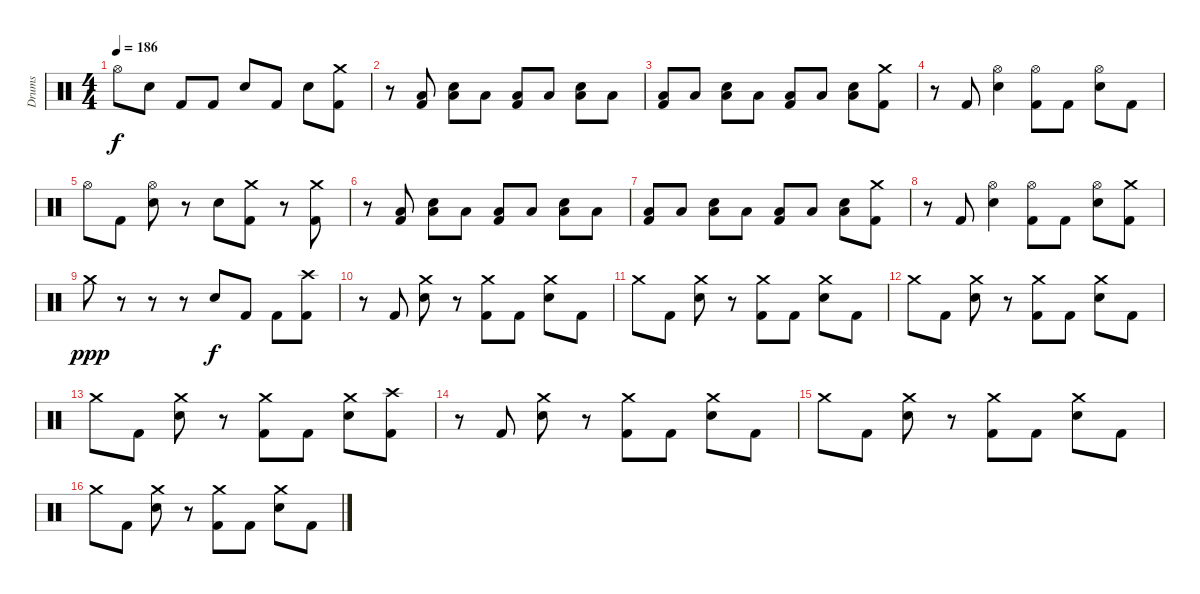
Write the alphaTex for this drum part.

\track ("Drums" "Drums") {instrument percussion}
\staff
\articulation defaults
\ts (4 4)
\tempo 186
\clef neutral
\ks c "Hi-Hat (open)".8{dy f} "Electric Snare (hit)".8 "Kick (hit) 2".8 "Kick (hit) 2".8 "Electric Snare (hit)".8 "Kick (hit) 2".8 "Electric Snare (hit)".8
("Crash medium (hit)" "Kick (hit) 2").8 |
r.8 ("Low Floor Tom (hit)" "Kick (hit) 2").8 ("Low Floor Tom (hit)" "Electric Snare (hit)").8 "Low Floor Tom (hit)".8 ("Low Floor Tom (hit)" "Kick (hit) 2").8 "Low Floor Tom (hit)".8 ("Low Floor Tom (hit)" "Electric Snare (hit)").8 "Low Floor Tom (hit)".8 |
("Low Floor Tom (hit)" "Kick (hit) 2").8 "Low Floor Tom (hit)".8 ("Low Floor Tom (hit)" "Electric Snare (hit)").8 "Low Floor Tom (hit)".8 ("Low Floor Tom (hit)" "Kick (hit) 2").8 "Low Floor Tom (hit)".8 ("Low Floor Tom (hit)" "Electric Snare (hit)").8 ("Crash medium (hit)" "Kick (hit) 2").8 |
r.8 "Kick (hit) 2".8 ("Hi-Hat (open)" "Electric Snare (hit)").4 ("Hi-Hat (open)" "Kick (hit) 2").8 "Kick (hit) 2".8 ("Hi-Hat (open)" "Electric Snare (hit)").8 "Kick (hit) 2".8 |
"Hi-Hat (open)".8 "Kick (hit) 2".8 ("Hi-Hat (open)" "Electric Snare (hit)").8 r.8 "Electric Snare (hit)".8 ("Crash medium (hit)" "Kick (hit) 2").8 r.8 ("Crash medium (hit)" "Kick (hit) 2").8 |
r.8 ("Low Floor Tom (hit)" "Kick (hit) 2").8 ("Low Floor Tom (hit)" "Electric Snare (hit)").8 "Low Floor Tom (hit)".8 ("Low Floor Tom (hit)" "Kick (hit) 2").8 "Low Floor Tom (hit)".8 ("Low Floor Tom (hit)" "Electric Snare (hit)").8 "Low Floor Tom (hit)".8 |
("Low Floor Tom (hit)" "Kick (hit) 2").8 "Low Floor Tom (hit)".8 ("Low Floor Tom (hit)" "Electric Snare (hit)").8 "Low Floor Tom (hit)".8 ("Low Floor Tom (hit)" "Kick (hit) 2").8 "Low Floor Tom (hit)".8 ("Low Floor Tom (hit)" "Electric Snare (hit)").8 ("Crash medium (hit)" "Kick (hit) 2").8 |
r.8 "Kick (hit) 2".8 ("Hi-Hat (open)" "Electric Snare (hit)").4 ("Hi-Hat (open)" "Kick (hit) 2").8 "Kick (hit) 2".8 ("Hi-Hat (open)" "Electric Snare (hit)").8 ("Crash medium (hit)" "Kick (hit) 2").8 |
"Crash medium (hit)".8{dy ppp} r.8 r.8 r.8 "Electric Snare (hit)".8{dy f} "Kick (hit) 2".8 "Kick (hit) 2".8 ("Crash high (hit)" "Kick (hit) 2").8 |
r.8 "Kick (hit) 2".8 ("Crash medium (hit)" "Electric Snare (hit)").8 r.8 ("Crash medium (hit)" "Kick (hit) 2").8 "Kick (hit) 2".8 ("Crash medium (hit)" "Electric Snare (hit)").8 "Kick (hit) 2".8 |
"Crash medium (hit)".8 "Kick (hit) 2".8 ("Crash medium (hit)" "Electric Snare (hit)").8 r.8 ("Crash medium (hit)" "Kick (hit) 2").8 "Kick (hit) 2".8 ("Crash medium (hit)" "Electric Snare (hit)").8 "Kick (hit) 2".8 |
"Crash medium (hit)".8 "Kick (hit) 2".8 ("Crash medium (hit)" "Electric Snare (hit)").8 r.8 ("Crash medium (hit)" "Kick (hit) 2").8 "Kick (hit) 2".8 ("Crash medium (hit)" "Electric Snare (hit)").8 "Kick (hit) 2".8 |
"Crash medium (hit)".8 "Kick (hit) 2".8 ("Crash medium (hit)" "Electric Snare (hit)").8 r.8 ("Crash medium (hit)" "Kick (hit) 2").8 "Kick (hit) 2".8 ("Crash medium (hit)" "Electric Snare (hit)").8 ("Crash high (hit)" "Kick (hit) 2").8 |
r.8 "Kick (hit) 2".8 ("Crash medium (hit)" "Electric Snare (hit)").8 r.8 ("Crash medium (hit)" "Kick (hit) 2").8 "Kick (hit) 2".8 ("Crash medium (hit)" "Electric Snare (hit)").8 "Kick (hit) 2".8 |
"Crash medium (hit)".8 "Kick (hit) 2".8 ("Crash medium (hit)" "Electric Snare (hit)").8 r.8 ("Crash medium (hit)" "Kick (hit) 2").8 "Kick (hit) 2".8 ("Crash medium (hit)" "Electric Snare (hit)").8 "Kick (hit) 2".8 |
"Crash medium (hit)".8 "Kick (hit) 2".8 ("Crash medium (hit)" "Electric Snare (hit)").8 r.8 ("Crash medium (hit)" "Kick (hit) 2").8 "Kick (hit) 2".8 ("Crash medium (hit)" "Electric Snare (hit)").8 "Kick (hit) 2".8
